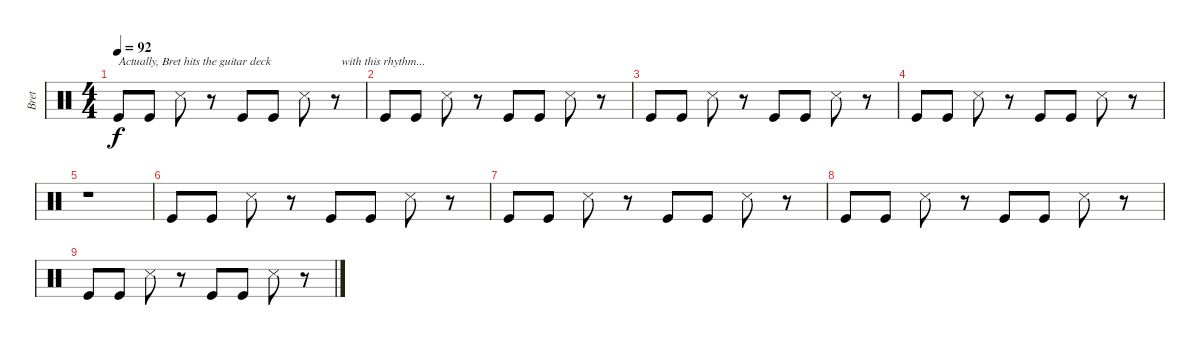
\track ("Bret" "Bret") {instrument percussion}
\staff {score}
\articulation defaults
\ts (4 4)
\tempo 92
\clef neutral
\ks c "Kick (hit)".8{txt "Actually, Bret hits the guitar deck " dy f} "Kick (hit)".8 "Snare (side stick) 3".8
r.8 "Kick (hit)".8 "Kick (hit)".8 "Snare (side stick) 3".8 r.8{txt "  with this rhythm..."} |
"Kick (hit)".8 "Kick (hit)".8 "Snare (side stick) 3".8 r.8 "Kick (hit)".8 "Kick (hit)".8 "Snare (side stick) 3".8 r.8 |
"Kick (hit)".8 "Kick (hit)".8 "Snare (side stick) 3".8 r.8 "Kick (hit)".8 "Kick (hit)".8 "Snare (side stick) 3".8 r.8 |
"Kick (hit)".8 "Kick (hit)".8 "Snare (side stick) 3".8 r.8 "Kick (hit)".8 "Kick (hit)".8 "Snare (side stick) 3".8 r.8 |
r.1 |
"Kick (hit)".8 "Kick (hit)".8 "Snare (side stick) 3".8 r.8 "Kick (hit)".8 "Kick (hit)".8 "Snare (side stick) 3".8 r.8 |
"Kick (hit)".8 "Kick (hit)".8 "Snare (side stick) 3".8 r.8 "Kick (hit)".8 "Kick (hit)".8 "Snare (side stick) 3".8 r.8 |
"Kick (hit)".8 "Kick (hit)".8 "Snare (side stick) 3".8 r.8 "Kick (hit)".8 "Kick (hit)".8 "Snare (side stick) 3".8 r.8 |
"Kick (hit)".8 "Kick (hit)".8 "Snare (side stick) 3".8 r.8 "Kick (hit)".8 "Kick (hit)".8 "Snare (side stick) 3".8 r.8
